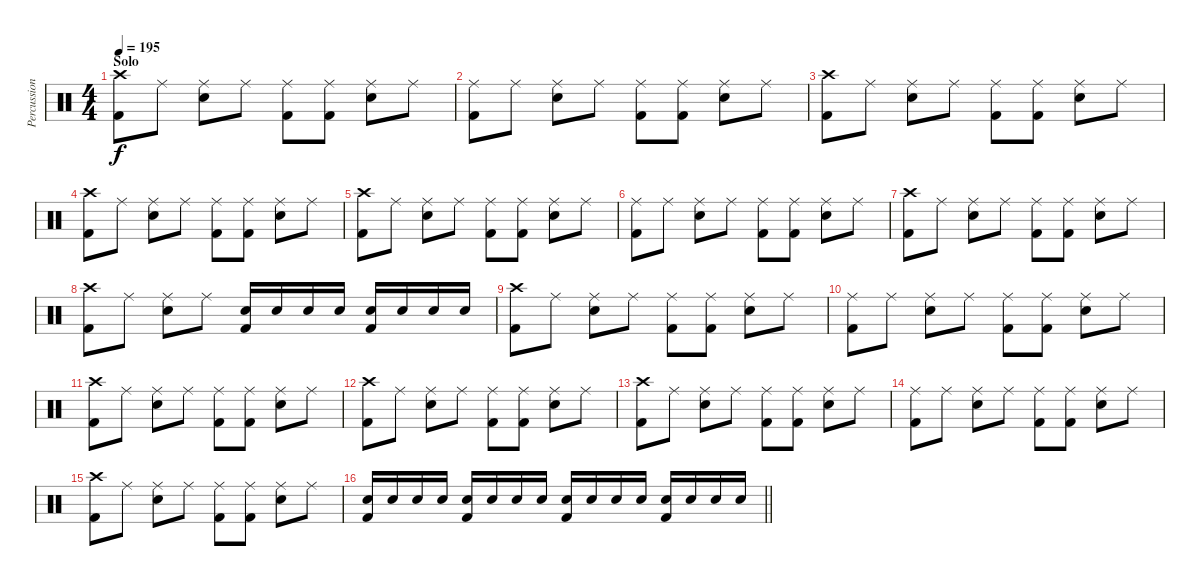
\track ("Percussion" "Percussion") {instrument percussion}
\staff {score}
\articulation defaults
\ts (4 4)
\section ("" "Solo")
\tempo 195
\clef neutral
\ks c
("Crash high (hit)" "Kick (hit) 2").8{dy f} "Ride (middle)".8 ("Ride (middle)" "Electric Snare (hit)").8 "Ride (middle)".8 ("Ride (middle)" "Kick (hit) 2").8 ("Ride (middle)" "Kick (hit) 2").8 ("Ride (middle)" "Electric Snare (hit)").8 "Ride (middle)".8 |
("Ride (middle)" "Kick (hit) 2").8 "Ride (middle)".8 ("Ride (middle)" "Electric Snare (hit)").8 "Ride (middle)".8 ("Ride (middle)" "Kick (hit) 2").8 ("Ride (middle)" "Kick (hit) 2").8 ("Ride (middle)" "Electric Snare (hit)").8 "Ride (middle)".8 |
("Crash high (hit)" "Kick (hit) 2").8 "Ride (middle)".8 ("Ride (middle)" "Electric Snare (hit)").8 "Ride (middle)".8 ("Ride (middle)" "Kick (hit) 2").8 ("Ride (middle)" "Kick (hit) 2").8 ("Ride (middle)" "Electric Snare (hit)").8 "Ride (middle)".8 |
("Crash high (hit)" "Kick (hit) 2").8 "Ride (middle)".8 ("Ride (middle)" "Electric Snare (hit)").8 "Ride (middle)".8 ("Ride (middle)" "Kick (hit) 2").8 ("Ride (middle)" "Kick (hit) 2").8 ("Ride (middle)" "Electric Snare (hit)").8 "Ride (middle)".8 |
("Crash high (hit)" "Kick (hit) 2").8 "Ride (middle)".8 ("Ride (middle)" "Electric Snare (hit)").8 "Ride (middle)".8 ("Ride (middle)" "Kick (hit) 2").8 ("Ride (middle)" "Kick (hit) 2").8 ("Ride (middle)" "Electric Snare (hit)").8 "Ride (middle)".8 |
("Ride (middle)" "Kick (hit) 2").8 "Ride (middle)".8 ("Ride (middle)" "Electric Snare (hit)").8 "Ride (middle)".8 ("Ride (middle)" "Kick (hit) 2").8 ("Ride (middle)" "Kick (hit) 2").8 ("Ride (middle)" "Electric Snare (hit)").8 "Ride (middle)".8 |
("Crash high (hit)" "Kick (hit) 2").8 "Ride (middle)".8 ("Ride (middle)" "Electric Snare (hit)").8 "Ride (middle)".8 ("Ride (middle)" "Kick (hit) 2").8 ("Ride (middle)" "Kick (hit) 2").8 ("Ride (middle)" "Electric Snare (hit)").8 "Ride (middle)".8 |
("Crash high (hit)" "Kick (hit) 2").8 "Ride (middle)".8 ("Ride (middle)" "Electric Snare (hit)").8 "Ride (middle)".8 ("Electric Snare (hit)" "Kick (hit) 2").16 "Electric Snare (hit)".16 "Electric Snare (hit)".16 "Electric Snare (hit)".16 ("Electric Snare (hit)" "Kick (hit) 2").16 "Electric Snare (hit)".16 "Electric Snare (hit)".16 "Electric Snare (hit)".16 |
("Crash high (hit)" "Kick (hit) 2").8 "Ride (middle)".8 ("Ride (middle)" "Electric Snare (hit)").8 "Ride (middle)".8 ("Ride (middle)" "Kick (hit) 2").8 ("Ride (middle)" "Kick (hit) 2").8 ("Ride (middle)" "Electric Snare (hit)").8 "Ride (middle)".8 |
("Ride (middle)" "Kick (hit) 2").8 "Ride (middle)".8 ("Ride (middle)" "Electric Snare (hit)").8 "Ride (middle)".8 ("Ride (middle)" "Kick (hit) 2").8 ("Ride (middle)" "Kick (hit) 2").8 ("Ride (middle)" "Electric Snare (hit)").8 "Ride (middle)".8 |
("Crash high (hit)" "Kick (hit) 2").8 "Ride (middle)".8 ("Ride (middle)" "Electric Snare (hit)").8 "Ride (middle)".8 ("Ride (middle)" "Kick (hit) 2").8 ("Ride (middle)" "Kick (hit) 2").8 ("Ride (middle)" "Electric Snare (hit)").8 "Ride (middle)".8 |
("Crash high (hit)" "Kick (hit) 2").8 "Ride (middle)".8 ("Ride (middle)" "Electric Snare (hit)").8 "Ride (middle)".8 ("Ride (middle)" "Kick (hit) 2").8 ("Ride (middle)" "Kick (hit) 2").8 ("Ride (middle)" "Electric Snare (hit)").8 "Ride (middle)".8 |
("Crash high (hit)" "Kick (hit) 2").8 "Ride (middle)".8 ("Ride (middle)" "Electric Snare (hit)").8 "Ride (middle)".8 ("Ride (middle)" "Kick (hit) 2").8 ("Ride (middle)" "Kick (hit) 2").8 ("Ride (middle)" "Electric Snare (hit)").8 "Ride (middle)".8 |
("Ride (middle)" "Kick (hit) 2").8 "Ride (middle)".8 ("Ride (middle)" "Electric Snare (hit)").8 "Ride (middle)".8 ("Ride (middle)" "Kick (hit) 2").8 ("Ride (middle)" "Kick (hit) 2").8 ("Ride (middle)" "Electric Snare (hit)").8 "Ride (middle)".8 |
("Crash high (hit)" "Kick (hit) 2").8 "Ride (middle)".8 ("Ride (middle)" "Electric Snare (hit)").8 "Ride (middle)".8 ("Ride (middle)" "Kick (hit) 2").8 ("Ride (middle)" "Kick (hit) 2").8 ("Ride (middle)" "Electric Snare (hit)").8 "Ride (middle)".8 |
\barLineRight lightlight
("Electric Snare (hit)" "Kick (hit) 2").16 "Electric Snare (hit)".16 "Electric Snare (hit)".16 "Electric Snare (hit)".16 ("Electric Snare (hit)" "Kick (hit) 2").16 "Electric Snare (hit)".16 "Electric Snare (hit)".16 "Electric Snare (hit)".16 ("Electric Snare (hit)" "Kick (hit) 2").16 "Electric Snare (hit)".16 "Electric Snare (hit)".16 "Electric Snare (hit)".16 ("Electric Snare (hit)" "Kick (hit) 2").16 "Electric Snare (hit)".16 "Electric Snare (hit)".16 "Electric Snare (hit)".16
